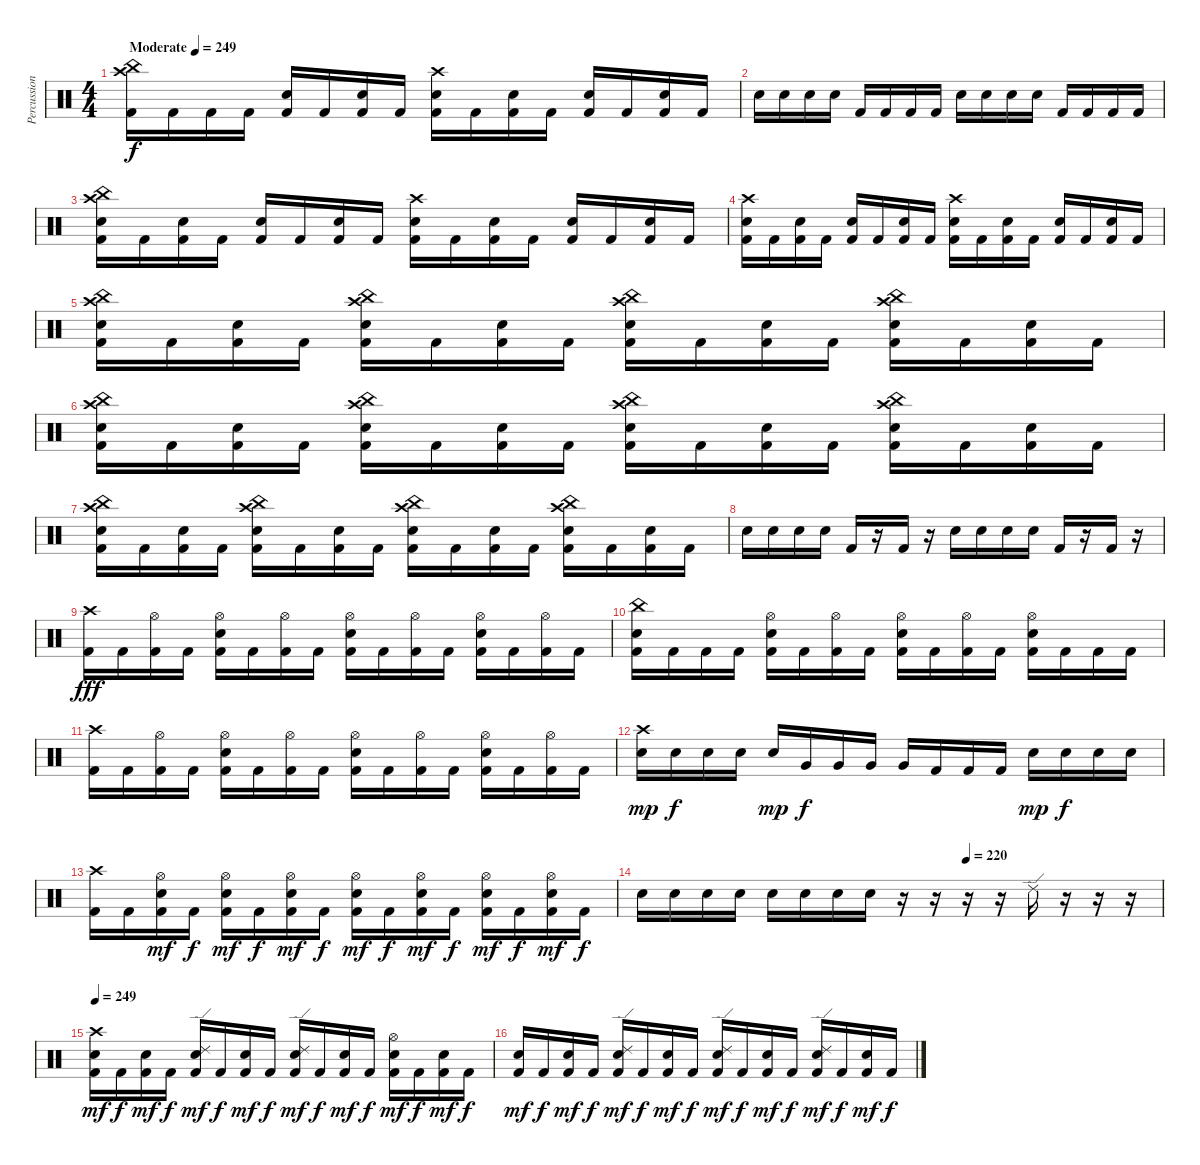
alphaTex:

\track ("Percussion" "Percussion") {instrument percussion}
\staff {score}
\articulation defaults
\ts (4 4)
\tempo (249 "Moderate")
\clef neutral
\ks c
("Crash high (hit)" "China (hit)" "Kick (hit) 2").16{dy f} "Kick (hit) 2".16 "Kick (hit) 2".16 "Kick (hit) 2".16 ("Electric Snare (hit)" "Kick (hit) 2").16 "Kick (hit) 2".16 ("Electric Snare (hit)" "Kick (hit) 2").16 "Kick (hit) 2".16 ("Crash high (hit)" "Electric Snare (hit)" "Kick (hit) 2").16 "Kick (hit) 2".16 ("Electric Snare (hit)" "Kick (hit) 2").16 "Kick (hit) 2".16 ("Electric Snare (hit)" "Kick (hit) 2").16 "Kick (hit) 2".16 ("Electric Snare (hit)" "Kick (hit) 2").16 "Kick (hit) 2".16 |
"Electric Snare (hit)".16 "Electric Snare (hit)".16 "Electric Snare (hit)".16 "Electric Snare (hit)".16 "Kick (hit) 2".16 "Kick (hit) 2".16 "Kick (hit) 2".16 "Kick (hit) 2".16 "Electric Snare (hit)".16 "Electric Snare (hit)".16 "Electric Snare (hit)".16 "Electric Snare (hit)".16 "Kick (hit) 2".16 "Kick (hit) 2".16 "Kick (hit) 2".16 "Kick (hit) 2".16 |
("Crash high (hit)" "China (hit)" "Electric Snare (hit)" "Kick (hit) 2").16 "Kick (hit) 2".16 ("Electric Snare (hit)" "Kick (hit) 2").16 "Kick (hit) 2".16 ("Electric Snare (hit)" "Kick (hit) 2").16 "Kick (hit) 2".16 ("Electric Snare (hit)" "Kick (hit) 2").16 "Kick (hit) 2".16 ("Crash high (hit)" "Electric Snare (hit)" "Kick (hit) 2").16 "Kick (hit) 2".16 ("Electric Snare (hit)" "Kick (hit) 2").16 "Kick (hit) 2".16 ("Electric Snare (hit)" "Kick (hit) 2").16 "Kick (hit) 2".16 ("Electric Snare (hit)" "Kick (hit) 2").16 "Kick (hit) 2".16 |
("Crash high (hit)" "Electric Snare (hit)" "Kick (hit) 2").16 "Kick (hit) 2".16 ("Electric Snare (hit)" "Kick (hit) 2").16 "Kick (hit) 2".16 ("Electric Snare (hit)" "Kick (hit) 2").16 "Kick (hit) 2".16 ("Electric Snare (hit)" "Kick (hit) 2").16 "Kick (hit) 2".16 ("Crash high (hit)" "Electric Snare (hit)" "Kick (hit) 2").16 "Kick (hit) 2".16 ("Electric Snare (hit)" "Kick (hit) 2").16 "Kick (hit) 2".16 ("Electric Snare (hit)" "Kick (hit) 2").16 "Kick (hit) 2".16 ("Electric Snare (hit)" "Kick (hit) 2").16 "Kick (hit) 2".16 |
("Crash high (hit)" "China (hit)" "Electric Snare (hit)" "Kick (hit) 2").16 "Kick (hit) 2".16 ("Electric Snare (hit)" "Kick (hit) 2").16 "Kick (hit) 2".16 ("Crash high (hit)" "China (hit)" "Electric Snare (hit)" "Kick (hit) 2").16 "Kick (hit) 2".16 ("Electric Snare (hit)" "Kick (hit) 2").16 "Kick (hit) 2".16 ("Crash high (hit)" "China (hit)" "Electric Snare (hit)" "Kick (hit) 2").16 "Kick (hit) 2".16 ("Electric Snare (hit)" "Kick (hit) 2").16 "Kick (hit) 2".16 ("Crash high (hit)" "China (hit)" "Electric Snare (hit)" "Kick (hit) 2").16 "Kick (hit) 2".16 ("Electric Snare (hit)" "Kick (hit) 2").16 "Kick (hit) 2".16 |
("Crash high (hit)" "China (hit)" "Electric Snare (hit)" "Kick (hit) 2").16 "Kick (hit) 2".16 ("Electric Snare (hit)" "Kick (hit) 2").16 "Kick (hit) 2".16 ("Crash high (hit)" "China (hit)" "Electric Snare (hit)" "Kick (hit) 2").16 "Kick (hit) 2".16 ("Electric Snare (hit)" "Kick (hit) 2").16 "Kick (hit) 2".16 ("Crash high (hit)" "China (hit)" "Electric Snare (hit)" "Kick (hit) 2").16 "Kick (hit) 2".16 ("Electric Snare (hit)" "Kick (hit) 2").16 "Kick (hit) 2".16 ("Crash high (hit)" "China (hit)" "Electric Snare (hit)" "Kick (hit) 2").16 "Kick (hit) 2".16 ("Electric Snare (hit)" "Kick (hit) 2").16 "Kick (hit) 2".16 |
("Crash high (hit)" "China (hit)" "Electric Snare (hit)" "Kick (hit) 2").16 "Kick (hit) 2".16 ("Electric Snare (hit)" "Kick (hit) 2").16 "Kick (hit) 2".16 ("Crash high (hit)" "China (hit)" "Electric Snare (hit)" "Kick (hit) 2").16 "Kick (hit) 2".16 ("Electric Snare (hit)" "Kick (hit) 2").16 "Kick (hit) 2".16 ("Crash high (hit)" "China (hit)" "Electric Snare (hit)" "Kick (hit) 2").16 "Kick (hit) 2".16 ("Electric Snare (hit)" "Kick (hit) 2").16 "Kick (hit) 2".16 ("Crash high (hit)" "China (hit)" "Electric Snare (hit)" "Kick (hit) 2").16 "Kick (hit) 2".16 ("Electric Snare (hit)" "Kick (hit) 2").16 "Kick (hit) 2".16 |
"Electric Snare (hit)".16 "Electric Snare (hit)".16 "Electric Snare (hit)".16 "Electric Snare (hit)".16 "Kick (hit) 2".16 r.16 "Kick (hit) 2".16 r.16 "Electric Snare (hit)".16 "Electric Snare (hit)".16 "Electric Snare (hit)".16 "Electric Snare (hit)".16 "Kick (hit) 2".16 r.16 "Kick (hit) 2".16 r.16 |
("Crash high (hit)" "Kick (hit) 2").16{dy fff} "Kick (hit) 2".16 ("Hi-Hat (open)" "Kick (hit) 2").16 "Kick (hit) 2".16 ("Hi-Hat (open)" "Electric Snare (hit)" "Kick (hit) 2").16 "Kick (hit) 2".16 ("Hi-Hat (open)" "Kick (hit) 2").16 "Kick (hit) 2".16 ("Hi-Hat (open)" "Electric Snare (hit)" "Kick (hit) 2").16 "Kick (hit) 2".16 ("Hi-Hat (open)" "Kick (hit) 2").16 "Kick (hit) 2".16 ("Hi-Hat (open)" "Electric Snare (hit)" "Kick (hit) 2").16 "Kick (hit) 2".16 ("Hi-Hat (open)" "Kick (hit) 2").16 "Kick (hit) 2".16 |
("China (hit)" "Electric Snare (hit)" "Kick (hit) 2").16 "Kick (hit) 2".16 "Kick (hit) 2".16 "Kick (hit) 2".16 ("Hi-Hat (open)" "Electric Snare (hit)" "Kick (hit) 2").16 "Kick (hit) 2".16 ("Hi-Hat (open)" "Kick (hit) 2").16 "Kick (hit) 2".16 ("Hi-Hat (open)" "Electric Snare (hit)" "Kick (hit) 2").16 "Kick (hit) 2".16 ("Hi-Hat (open)" "Kick (hit) 2").16 "Kick (hit) 2".16 ("Hi-Hat (open)" "Electric Snare (hit)" "Kick (hit) 2").16 "Kick (hit) 2".16 "Kick (hit) 2".16 "Kick (hit) 2".16 |
("Crash high (hit)" "Kick (hit) 2").16 "Kick (hit) 2".16 ("Hi-Hat (open)" "Kick (hit) 2").16 "Kick (hit) 2".16 ("Hi-Hat (open)" "Electric Snare (hit)" "Kick (hit) 2").16 "Kick (hit) 2".16 ("Hi-Hat (open)" "Kick (hit) 2").16 "Kick (hit) 2".16 ("Hi-Hat (open)" "Electric Snare (hit)" "Kick (hit) 2").16 "Kick (hit) 2".16 ("Hi-Hat (open)" "Kick (hit) 2").16 "Kick (hit) 2".16 ("Hi-Hat (open)" "Electric Snare (hit)" "Kick (hit) 2").16 "Kick (hit) 2".16 ("Hi-Hat (open)" "Kick (hit) 2").16 "Kick (hit) 2".16 |
("Crash high (hit)" "Electric Snare (hit)").16{dy mp} "Electric Snare (hit)".16{dy f} "Electric Snare (hit)".16 "Electric Snare (hit)".16 "Electric Snare (hit)".16{dy mp} "Very Low Tom (hit)".16{dy f} "Very Low Tom (hit)".16 "Very Low Tom (hit)".16 "Very Low Tom (hit)".16 "Kick (hit) 2".16 "Kick (hit) 2".16 "Kick (hit) 2".16 "Electric Snare (hit)".16{dy mp} "Electric Snare (hit)".16{dy f} "Electric Snare (hit)".16 "Electric Snare (hit)".16 |
("Crash high (hit)" "Kick (hit) 2").16 "Kick (hit) 2".16 ("Hi-Hat (open)" "Electric Snare (hit)" "Kick (hit) 2").16{dy mf} "Kick (hit) 2".16{dy f} ("Hi-Hat (open)" "Electric Snare (hit)" "Kick (hit) 2").16{dy mf} "Kick (hit) 2".16{dy f} ("Hi-Hat (open)" "Electric Snare (hit)" "Kick (hit) 2").16{dy mf} "Kick (hit) 2".16{dy f} ("Hi-Hat (open)" "Electric Snare (hit)" "Kick (hit) 2").16{dy mf} "Kick (hit) 2".16{dy f} ("Hi-Hat (open)" "Electric Snare (hit)" "Kick (hit) 2").16{dy mf} "Kick (hit) 2".16{dy f} ("Hi-Hat (open)" "Electric Snare (hit)" "Kick (hit) 2").16{dy mf} "Kick (hit) 2".16{dy f} ("Hi-Hat (open)" "Electric Snare (hit)" "Kick (hit) 2").16{dy mf} "Kick (hit) 2".16{dy f} |
\tempo (220 0.625)
"Electric Snare (hit)".16 "Electric Snare (hit)".16 "Electric Snare (hit)".16 "Electric Snare (hit)".16 "Electric Snare (hit)".16 "Electric Snare (hit)".16 "Electric Snare (hit)".16 "Electric Snare (hit)".16 r.16 r.16 r.16 r.16 "Ride (edge) 2".16 r.16 r.16 r.16 |
\tempo 249
("Crash high (hit)" "Electric Snare (hit)" "Kick (hit) 2").16{dy mf} "Kick (hit) 2".16{dy f} ("Electric Snare (hit)" "Kick (hit) 2").16{dy mf} "Kick (hit) 2".16{dy f} ("Ride (edge) 2" "Electric Snare (hit)" "Kick (hit) 2").16{dy mf} "Kick (hit) 2".16{dy f} ("Electric Snare (hit)" "Kick (hit) 2").16{dy mf} "Kick (hit) 2".16{dy f} ("Ride (edge) 2" "Electric Snare (hit)" "Kick (hit) 2").16{dy mf} "Kick (hit) 2".16{dy f} ("Electric Snare (hit)" "Kick (hit) 2").16{dy mf} "Kick (hit) 2".16{dy f} ("Hi-Hat (open)" "Electric Snare (hit)" "Kick (hit) 2").16{dy mf} "Kick (hit) 2".16{dy f} ("Electric Snare (hit)" "Kick (hit) 2").16{dy mf} "Kick (hit) 2".16{dy f} |
("Electric Snare (hit)" "Kick (hit) 2").16{dy mf} "Kick (hit) 2".16{dy f} ("Electric Snare (hit)" "Kick (hit) 2").16{dy mf} "Kick (hit) 2".16{dy f} ("Ride (edge) 2" "Electric Snare (hit)" "Kick (hit) 2").16{dy mf} "Kick (hit) 2".16{dy f} ("Electric Snare (hit)" "Kick (hit) 2").16{dy mf} "Kick (hit) 2".16{dy f} ("Ride (edge) 2" "Electric Snare (hit)" "Kick (hit) 2").16{dy mf} "Kick (hit) 2".16{dy f} ("Electric Snare (hit)" "Kick (hit) 2").16{dy mf} "Kick (hit) 2".16{dy f} ("Ride (edge) 2" "Electric Snare (hit)" "Kick (hit) 2").16{dy mf} "Kick (hit) 2".16{dy f} ("Electric Snare (hit)" "Kick (hit) 2").16{dy mf} "Kick (hit) 2".16{dy f}
